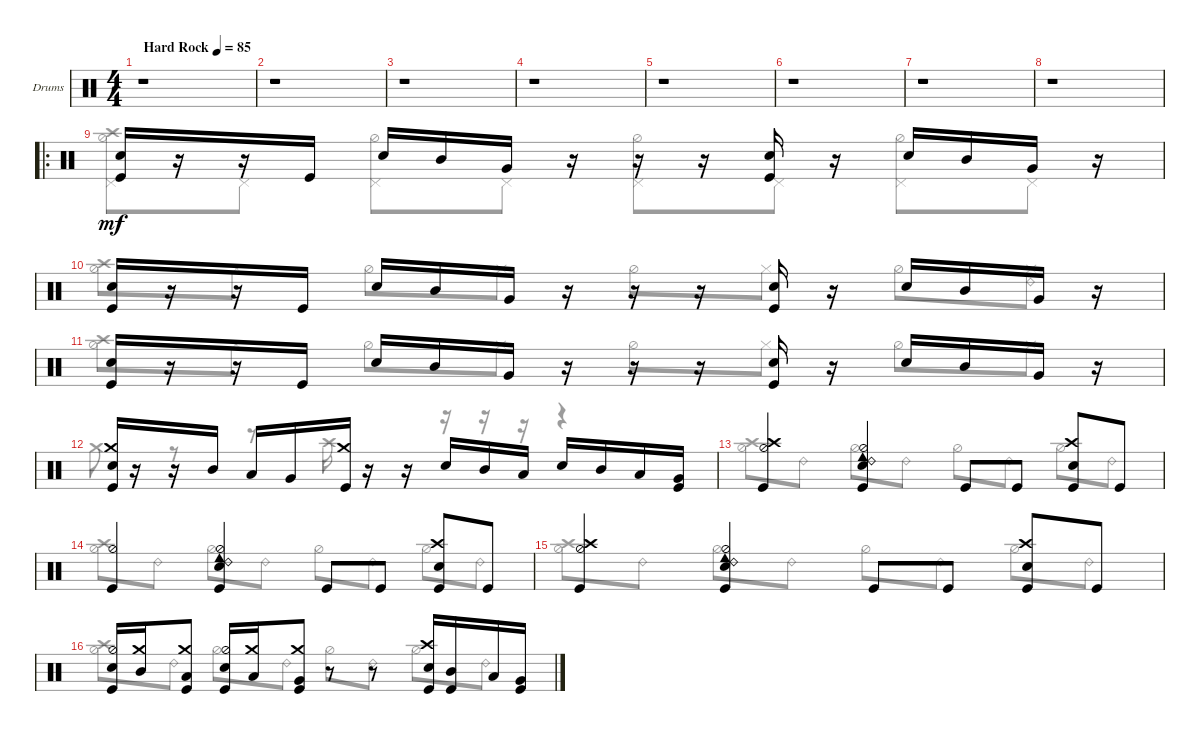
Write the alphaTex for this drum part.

\defaultSystemsLayout 4
\bracketExtendMode groupsimilarinstruments
\firstSystemTrackNameOrientation horizontal
\otherSystemsTrackNameOrientation horizontal
\track ("Drumkit" "Drums") {instrument percussion}
\staff {score}
\articulation defaults
\voice
\ts (4 4)
\tempo (85 "Hard Rock")
\clef neutral
\ks c
r.1{dy mf} |
r.1 |
r.1 |
r.1 |
r.1 |
r.1 |
r.1 |
\scale
0.448889 r.1 |
\ro
\scale
0.302222 ("Kick (hit)" "Snare (hit) 2").16 r.16 r.16 "Kick (hit)".16 "Snare (hit) 2".16 "Mid Tom (hit)".16 "Very Low Tom (hit)".16 r.16 r.16 r.16 ("Kick (hit)" "Snare (hit) 2").16 r.16 "Snare (hit) 2".16 "Mid Tom (hit)".16 "Very Low Tom (hit)".16 r.16 |
\scale
0.248889 ("Kick (hit)" "Snare (hit) 2").16 r.16 r.16 "Kick (hit)".16 "Snare (hit) 2".16 "Mid Tom (hit)".16 "Very Low Tom (hit)".16 r.16 r.16 r.16 ("Kick (hit)" "Snare (hit) 2").16 r.16 "Snare (hit) 2".16 "Mid Tom (hit)".16 "Very Low Tom (hit)".16 r.16 |
\scale
0.333333 ("Kick (hit)" "Snare (hit) 2").16 r.16 r.16 "Kick (hit)".16 "Snare (hit) 2".16 "Mid Tom (hit)".16 "Very Low Tom (hit)".16 r.16 r.16 r.16 ("Kick (hit)" "Snare (hit) 2").16 r.16 "Snare (hit) 2".16 "Mid Tom (hit)".16 "Very Low Tom (hit)".16 r.16 |
\scale
0.333333 ("Kick (hit)" "Snare (hit) 2" "Crash medium (hit)").16 r.16 r.16 "Mid Tom (hit)".16 "Low Tom (hit)".16 "Very Low Tom (hit)".16 ("Kick (hit)" "Crash medium (hit)").16 r.16 r.16 "Snare (hit) 2".16 "Mid Tom (hit)".16 "Low Tom (hit)".16 "Snare (hit) 2".16 "Mid Tom (hit)".16 "Low Tom (hit)".16 ("Kick (hit)" "Very Low Tom (hit)").16 |
\scale
0.333333 ("Kick (hit)" "Hi-Hat (half)" "Crash high (hit)").4 ("Snare (hit) 2" "Hi-Hat (half)" "Cowbell low (hit)" "Ride (bell) 2" "Kick (hit)").4 "Kick (hit)".8 "Kick (hit)".8 ("Snare (hit) 2" "Kick (hit)" "Crash high (hit)").8 "Kick (hit)".8 |
\scale
0.333333 ("Kick (hit)" "Hi-Hat (half)").4 ("Snare (hit) 2" "Hi-Hat (half)" "Cowbell low (hit)" "Ride (bell) 2" "Kick (hit)").4 "Kick (hit)".8 "Kick (hit)".8 ("Snare (hit) 2" "Kick (hit)" "Crash high (hit)").8 "Kick (hit)".8 |
\scale
0.333333 ("Kick (hit)" "Hi-Hat (half)" "Crash high (hit)").4 ("Snare (hit) 2" "Hi-Hat (half)" "Cowbell low (hit)" "Ride (bell) 2" "Kick (hit)").4 "Kick (hit)".8 "Kick (hit)".8 ("Snare (hit) 2" "Kick (hit)" "Crash high (hit)").8 "Kick (hit)".8 |
\scale
0.333333 ("Kick (hit)" "Hi-Hat (half)" "Snare (hit) 2").16 ("Crash medium (hit)" "Mid Tom (hit)").16 ("Kick (hit)" "Low Tom (hit)" "Crash medium (hit)").8 ("Kick (hit)" "Hi-Hat (half)" "Snare (hit) 2").16 ("Crash medium (hit)" "Low Tom (hit)").16 ("Kick (hit)" "Crash medium (hit)" "Very Low Tom (hit)").8 r.8 r.8 ("Snare (hit) 2" "Kick (hit)" "Crash high (hit)").16 ("Kick (hit)" "Mid Tom (hit)").16 "Low Tom (hit)".16 ("Very Low Tom (hit)" "Kick (hit)").16
\voice
\clef neutral
\ottava regular
\simile none
\ks c
|
|
|
|
|
|
|
\scale
0.448889 |
\scale
0.302222 ("Pedal Hi-Hat (hit)" "Hi-Hat (half)" "Crash high (hit)").8 "Pedal Hi-Hat (hit)".8 ("Pedal Hi-Hat (hit)" "Hi-Hat (half)").8 "Pedal Hi-Hat (hit)".8 ("Pedal Hi-Hat (hit)" "Hi-Hat (half)").8 "Pedal Hi-Hat (hit)".8 ("Pedal Hi-Hat (hit)" "Hi-Hat (half)").8 "Pedal Hi-Hat (hit)".8 |
\scale
0.248889 ("Hi-Hat (half)" "Crash high (hit)").8 "Hi-Hat (closed)".8 "Hi-Hat (half)".8 "Hi-Hat (closed)".8 "Hi-Hat (half)".8 "Hi-Hat (closed)".8 "Hi-Hat (half)".8 ("Ride (bell) 2" "Hi-Hat (closed)").8 |
\scale
0.333333 ("Hi-Hat (half)" "Crash high (hit)").8 "Hi-Hat (closed)".8 "Hi-Hat (half)".8 "Hi-Hat (closed)".8 "Hi-Hat (half)".8 "Hi-Hat (closed)".8 "Hi-Hat (half)".8 "Hi-Hat (closed)".8 |
\scale
0.333333 "Crash medium (hit)".8 r.8 r.8 "Crash high (hit)".16 r.16 r.16 r.16 r.16 r.16 r.4 |
\scale
0.333333 ("Hi-Hat (half)" "Crash high (hit)").8 "Ride (bell) 2".8 "Hi-Hat (half)".8 "Ride (bell) 2".8 "Hi-Hat (half)".8 "Ride (bell) 2".8 "Hi-Hat (half)".8 "Ride (bell) 2".8 |
\scale
0.333333 ("Hi-Hat (half)" "Crash high (hit)").8 "Ride (bell) 2".8 "Hi-Hat (half)".8 "Ride (bell) 2".8 "Hi-Hat (half)".8 "Ride (bell) 2".8 "Hi-Hat (half)".8 "Ride (bell) 2".8 |
\scale
0.333333 ("Hi-Hat (half)" "Crash high (hit)").8 "Ride (bell) 2".8 "Hi-Hat (half)".8 "Ride (bell) 2".8 "Hi-Hat (half)".8 "Ride (bell) 2".8 "Hi-Hat (half)".8 "Ride (bell) 2".8 |
\scale
0.333333 ("Hi-Hat (half)" "Crash high (hit)").8 "Ride (bell) 2".8 "Hi-Hat (half)".8 "Ride (bell) 2".8 "Hi-Hat (half)".8 "Ride (bell) 2".8 "Hi-Hat (half)".8 "Ride (bell) 2".8
